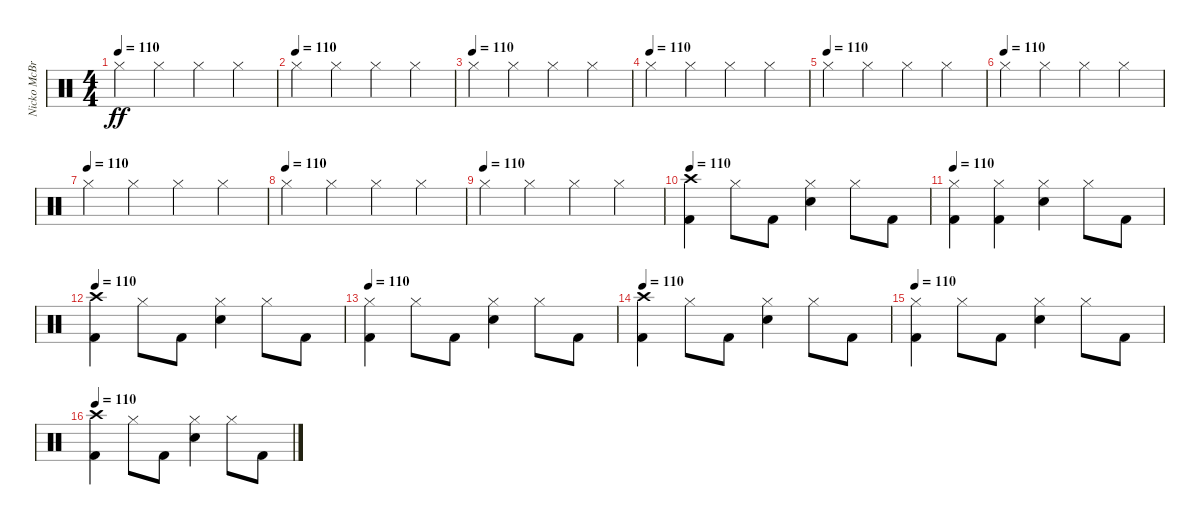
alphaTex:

\track ("Nicko McBrain" "Nicko McBr") {instrument percussion}
\staff {score}
\articulation defaults
\ts (4 4)
\tempo 110
\clef neutral
\ks c "Hi-Hat (closed)".4{dy ff} "Hi-Hat (closed)".4 "Hi-Hat (closed)".4 "Hi-Hat (closed)".4
|
\tempo (110)
"Hi-Hat (closed)".4 "Hi-Hat (closed)".4 "Hi-Hat (closed)".4 "Hi-Hat (closed)".4 |
\tempo (110)
"Hi-Hat (closed)".4 "Hi-Hat (closed)".4 "Hi-Hat (closed)".4 "Hi-Hat (closed)".4 |
\tempo (110)
"Hi-Hat (closed)".4 "Hi-Hat (closed)".4 "Hi-Hat (closed)".4 "Hi-Hat (closed)".4 |
\tempo (110)
"Hi-Hat (closed)".4 "Hi-Hat (closed)".4 "Hi-Hat (closed)".4 "Hi-Hat (closed)".4 |
\tempo (110)
"Hi-Hat (closed)".4 "Hi-Hat (closed)".4 "Hi-Hat (closed)".4 "Hi-Hat (closed)".4 |
\tempo (110)
"Hi-Hat (closed)".4 "Hi-Hat (closed)".4 "Hi-Hat (closed)".4 "Hi-Hat (closed)".4 |
\tempo (110)
"Hi-Hat (closed)".4 "Hi-Hat (closed)".4 "Hi-Hat (closed)".4 "Hi-Hat (closed)".4 |
\tempo (110)
"Hi-Hat (closed)".4 "Hi-Hat (closed)".4 "Hi-Hat (closed)".4 "Hi-Hat (closed)".4 |
\tempo 110
("Kick (hit) 2" "Crash high (hit)").4 "Hi-Hat (closed)".8 "Kick (hit) 2".8 ("Snare (hit) 2" "Hi-Hat (closed)").4 "Hi-Hat (closed)".8 "Kick (hit) 2".8 |
\tempo 110
("Kick (hit) 2" "Hi-Hat (closed)").4 ("Kick (hit) 2" "Hi-Hat (closed)").4 ("Snare (hit) 2" "Hi-Hat (closed)").4 "Hi-Hat (closed)".8 "Kick (hit) 2".8 |
\tempo 110
("Kick (hit) 2" "Crash high (hit)").4 "Hi-Hat (closed)".8 "Kick (hit) 2".8 ("Snare (hit) 2" "Hi-Hat (closed)").4 "Hi-Hat (closed)".8 "Kick (hit) 2".8 |
\tempo 110
("Kick (hit) 2" "Hi-Hat (closed)").4 "Hi-Hat (closed)".8 "Kick (hit) 2".8 ("Snare (hit) 2" "Hi-Hat (closed)").4 "Hi-Hat (closed)".8 "Kick (hit) 2".8 |
\tempo 110
("Kick (hit) 2" "Crash high (hit)").4 "Hi-Hat (closed)".8 "Kick (hit) 2".8 ("Snare (hit) 2" "Hi-Hat (closed)").4 "Hi-Hat (closed)".8 "Kick (hit) 2".8 |
\tempo 110
("Kick (hit) 2" "Hi-Hat (closed)").4 "Hi-Hat (closed)".8 "Kick (hit) 2".8 ("Snare (hit) 2" "Hi-Hat (closed)").4 "Hi-Hat (closed)".8 "Kick (hit) 2".8 |
\tempo 110
("Kick (hit) 2" "Crash high (hit)").4 "Hi-Hat (closed)".8 "Kick (hit) 2".8 ("Snare (hit) 2" "Hi-Hat (closed)").4 "Hi-Hat (closed)".8 "Kick (hit) 2".8
